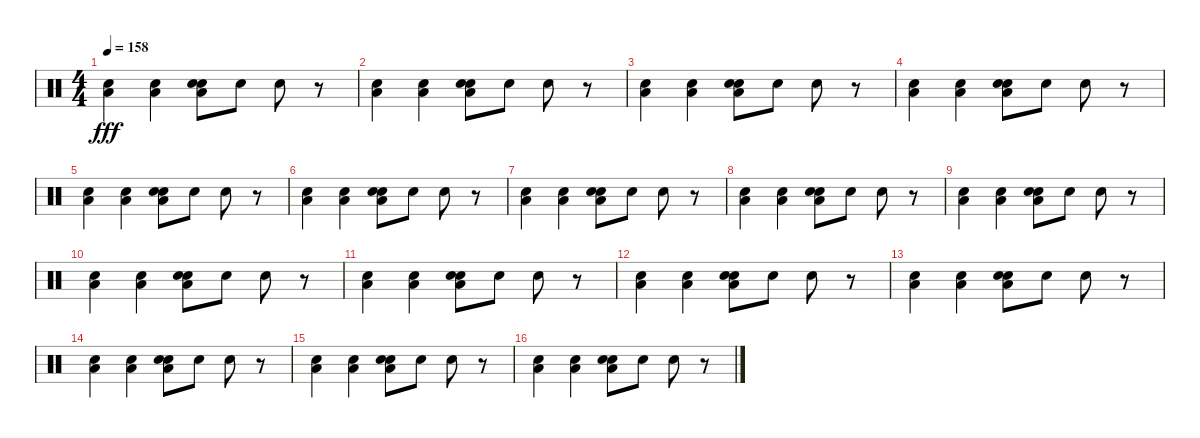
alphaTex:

\track "" {instrument percussion}
\staff {score}
\articulation defaults
\ts (4 4)
\tempo 158
\clef neutral
\ks c
("Low Floor Tom (hit)" "Electric Snare (hit)").4{dy fff} ("Low Floor Tom (hit)" "Electric Snare (hit)").4 ("Electric Snare (hit)" "Low Floor Tom (hit)" "Electric Snare (hit)").8 "Electric Snare (hit)".8 "Electric Snare (hit)".8 r.8 |
("Low Floor Tom (hit)" "Electric Snare (hit)").4 ("Low Floor Tom (hit)" "Electric Snare (hit)").4 ("Electric Snare (hit)" "Low Floor Tom (hit)" "Electric Snare (hit)").8 "Electric Snare (hit)".8 "Electric Snare (hit)".8 r.8 |
("Low Floor Tom (hit)" "Electric Snare (hit)").4 ("Low Floor Tom (hit)" "Electric Snare (hit)").4 ("Electric Snare (hit)" "Low Floor Tom (hit)" "Electric Snare (hit)").8 "Electric Snare (hit)".8 "Electric Snare (hit)".8 r.8 |
("Low Floor Tom (hit)" "Snare (hit) 2").4 ("Low Floor Tom (hit)" "Snare (hit) 2").4 ("Electric Snare (hit)" "Low Floor Tom (hit)" "Snare (hit) 2").8 "Electric Snare (hit)".8 "Electric Snare (hit)".8 r.8 |
("Low Floor Tom (hit)" "Snare (hit) 2").4 ("Low Floor Tom (hit)" "Snare (hit) 2").4 ("Electric Snare (hit)" "Low Floor Tom (hit)" "Snare (hit) 2").8 "Electric Snare (hit)".8 "Electric Snare (hit)".8 r.8 |
("Low Floor Tom (hit)" "Electric Snare (hit)").4 ("Low Floor Tom (hit)" "Electric Snare (hit)").4 ("Electric Snare (hit)" "Low Floor Tom (hit)" "Electric Snare (hit)").8 "Electric Snare (hit)".8 "Electric Snare (hit)".8 r.8 |
("Low Floor Tom (hit)" "Electric Snare (hit)").4 ("Low Floor Tom (hit)" "Electric Snare (hit)").4 ("Electric Snare (hit)" "Low Floor Tom (hit)" "Electric Snare (hit)").8 "Electric Snare (hit)".8 "Electric Snare (hit)".8 r.8 |
("Low Floor Tom (hit)" "Electric Snare (hit)").4 ("Low Floor Tom (hit)" "Electric Snare (hit)").4 ("Electric Snare (hit)" "Low Floor Tom (hit)" "Electric Snare (hit)").8 "Electric Snare (hit)".8 "Electric Snare (hit)".8 r.8 |
("Low Floor Tom (hit)" "Electric Snare (hit)").4 ("Low Floor Tom (hit)" "Electric Snare (hit)").4 ("Electric Snare (hit)" "Low Floor Tom (hit)" "Electric Snare (hit)").8 "Electric Snare (hit)".8 "Electric Snare (hit)".8 r.8 |
("Low Floor Tom (hit)" "Snare (hit) 2").4 ("Low Floor Tom (hit)" "Snare (hit) 2").4 ("Electric Snare (hit)" "Low Floor Tom (hit)" "Snare (hit) 2").8 "Electric Snare (hit)".8 "Electric Snare (hit)".8 r.8 |
("Low Floor Tom (hit)" "Snare (hit) 2").4 ("Low Floor Tom (hit)" "Snare (hit) 2").4 ("Electric Snare (hit)" "Low Floor Tom (hit)" "Snare (hit) 2").8 "Electric Snare (hit)".8 "Electric Snare (hit)".8 r.8 |
("Low Floor Tom (hit)" "Electric Snare (hit)").4 ("Low Floor Tom (hit)" "Electric Snare (hit)").4 ("Electric Snare (hit)" "Low Floor Tom (hit)" "Electric Snare (hit)").8 "Electric Snare (hit)".8 "Electric Snare (hit)".8 r.8 |
("Low Floor Tom (hit)" "Electric Snare (hit)").4 ("Low Floor Tom (hit)" "Electric Snare (hit)").4 ("Electric Snare (hit)" "Low Floor Tom (hit)" "Electric Snare (hit)").8 "Electric Snare (hit)".8 "Electric Snare (hit)".8 r.8 |
("Low Floor Tom (hit)" "Electric Snare (hit)").4 ("Low Floor Tom (hit)" "Electric Snare (hit)").4 ("Electric Snare (hit)" "Low Floor Tom (hit)" "Electric Snare (hit)").8 "Electric Snare (hit)".8 "Electric Snare (hit)".8 r.8 |
("Low Floor Tom (hit)" "Electric Snare (hit)").4 ("Low Floor Tom (hit)" "Electric Snare (hit)").4 ("Electric Snare (hit)" "Low Floor Tom (hit)" "Electric Snare (hit)").8 "Electric Snare (hit)".8 "Electric Snare (hit)".8 r.8 |
("Low Floor Tom (hit)" "Snare (hit) 2").4 ("Low Floor Tom (hit)" "Snare (hit) 2").4 ("Electric Snare (hit)" "Low Floor Tom (hit)" "Snare (hit) 2").8 "Electric Snare (hit)".8 "Electric Snare (hit)".8 r.8
